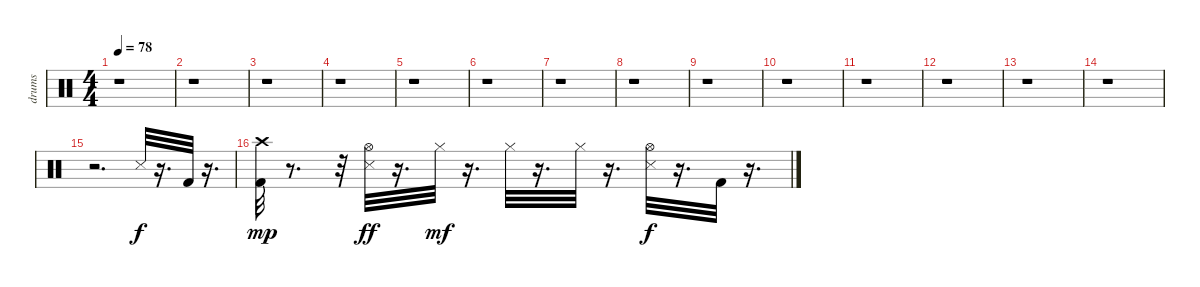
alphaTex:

\track ("drums" "drums") {instrument percussion}
\staff {score}
\articulation defaults
\ts (4 4)
\tempo 78
\clef neutral
\ks c
r.1{dy f} |
r.1 |
r.1 |
r.1 |
r.1 |
r.1 |
r.1 |
r.1 |
r.1 |
r.1 |
r.1 |
r.1 |
r.1 |
r.1 |
r.2{d} "Snare (side stick) 3".32 r.16{d} "Kick (hit) 2".32 r.16{d} |
("Crash high (hit)" "Kick (hit) 2").32{dy mp} r.8{d} r.32 ("Snare (side stick) 3" "Hi-Hat (open)").32{dy ff} r.16{d} "Hi-Hat (closed)".32{dy mf} r.16{d} "Hi-Hat (closed)".32 r.16{d} "Hi-Hat (closed)".32 r.16{d} ("Snare (side stick) 3" "Hi-Hat (open)").32{dy f} r.16{d} "Kick (hit) 2".32 r.16{d}
